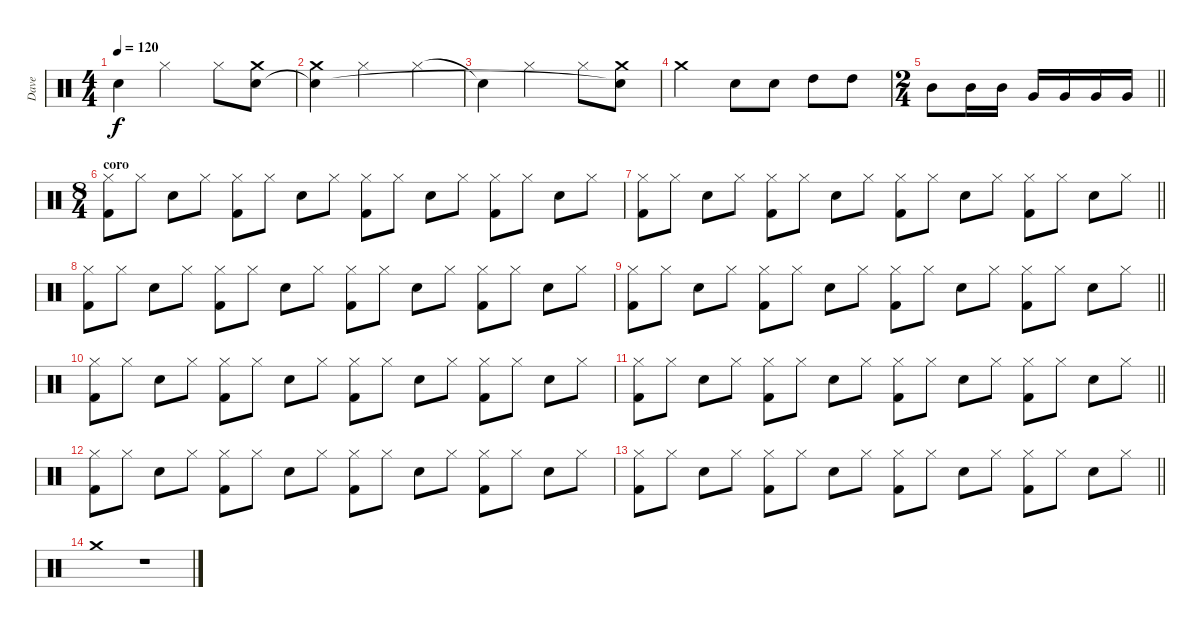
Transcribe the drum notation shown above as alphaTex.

\track ("Dave" "Dave") {instrument percussion}
\staff {score}
\articulation defaults
\ts (4 4)
\tempo 120
\clef neutral
\ks c "Snare (hit)"{t}.4{dy f} "Hi-Hat (closed)".2 "Hi-Hat (closed)".8
("Crash medium (hit)" "Snare (hit)"{t}).8 |
("Crash medium (hit)" "Snare (hit)"{t}).4 "Hi-Hat (closed)".2 "Hi-Hat (closed)".4 |
"Snare (hit)"{t}.4 "Hi-Hat (closed)".2 "Hi-Hat (closed)".8 ("Crash medium (hit)" "Snare (hit)"{t}).8 |
"Crash medium (hit)".2 "Snare (hit) 2".8 "Snare (hit) 2".8 "High Tom (hit)".8 "High Tom (hit)".8 |
\ts (2 4)
\barLineRight lightlight "Mid Tom (hit)".8 "Mid Tom (hit)".16 "Mid Tom (hit)".16 "Very Low Tom (hit)".16 "Very Low Tom (hit)".16 "Very Low Tom (hit)".16 "Very Low Tom (hit)".16
|
\ts (8 4)
\section ("" "coro")
("Hi-Hat (closed)" "Kick (hit) 2").8 "Hi-Hat (closed)".8 "Snare (hit) 2".8 "Hi-Hat (closed)".8 ("Hi-Hat (closed)" "Kick (hit) 2").8 "Hi-Hat (closed)".8 "Snare (hit) 2".8 "Hi-Hat (closed)".8 ("Hi-Hat (closed)" "Kick (hit) 2").8 "Hi-Hat (closed)".8 "Snare (hit) 2".8 "Hi-Hat (closed)".8 ("Hi-Hat (closed)" "Kick (hit) 2").8 "Hi-Hat (closed)".8 "Snare (hit) 2".8 "Hi-Hat (closed)".8 |
\barLineRight lightlight
("Hi-Hat (closed)" "Kick (hit) 2").8 "Hi-Hat (closed)".8 "Snare (hit) 2".8 "Hi-Hat (closed)".8 ("Hi-Hat (closed)" "Kick (hit) 2").8 "Hi-Hat (closed)".8 "Snare (hit) 2".8 "Hi-Hat (closed)".8 ("Hi-Hat (closed)" "Kick (hit) 2").8 "Hi-Hat (closed)".8 "Snare (hit) 2".8 "Hi-Hat (closed)".8 ("Hi-Hat (closed)" "Kick (hit) 2").8 "Hi-Hat (closed)".8 "Snare (hit) 2".8 "Hi-Hat (closed)".8 |
("Hi-Hat (closed)" "Kick (hit) 2").8 "Hi-Hat (closed)".8 "Snare (hit) 2".8 "Hi-Hat (closed)".8 ("Hi-Hat (closed)" "Kick (hit) 2").8 "Hi-Hat (closed)".8 "Snare (hit) 2".8 "Hi-Hat (closed)".8 ("Hi-Hat (closed)" "Kick (hit) 2").8 "Hi-Hat (closed)".8 "Snare (hit) 2".8 "Hi-Hat (closed)".8 ("Hi-Hat (closed)" "Kick (hit) 2").8 "Hi-Hat (closed)".8 "Snare (hit) 2".8 "Hi-Hat (closed)".8 |
\barLineRight lightlight
("Hi-Hat (closed)" "Kick (hit) 2").8 "Hi-Hat (closed)".8 "Snare (hit) 2".8 "Hi-Hat (closed)".8 ("Hi-Hat (closed)" "Kick (hit) 2").8 "Hi-Hat (closed)".8 "Snare (hit) 2".8 "Hi-Hat (closed)".8 ("Hi-Hat (closed)" "Kick (hit) 2").8 "Hi-Hat (closed)".8 "Snare (hit) 2".8 "Hi-Hat (closed)".8 ("Hi-Hat (closed)" "Kick (hit) 2").8 "Hi-Hat (closed)".8 "Snare (hit) 2".8 "Hi-Hat (closed)".8 |
("Hi-Hat (closed)" "Kick (hit) 2").8 "Hi-Hat (closed)".8 "Snare (hit) 2".8 "Hi-Hat (closed)".8 ("Hi-Hat (closed)" "Kick (hit) 2").8 "Hi-Hat (closed)".8 "Snare (hit) 2".8 "Hi-Hat (closed)".8 ("Hi-Hat (closed)" "Kick (hit) 2").8 "Hi-Hat (closed)".8 "Snare (hit) 2".8 "Hi-Hat (closed)".8 ("Hi-Hat (closed)" "Kick (hit) 2").8 "Hi-Hat (closed)".8 "Snare (hit) 2".8 "Hi-Hat (closed)".8 |
\barLineRight lightlight
("Hi-Hat (closed)" "Kick (hit) 2").8 "Hi-Hat (closed)".8 "Snare (hit) 2".8 "Hi-Hat (closed)".8 ("Hi-Hat (closed)" "Kick (hit) 2").8 "Hi-Hat (closed)".8 "Snare (hit) 2".8 "Hi-Hat (closed)".8 ("Hi-Hat (closed)" "Kick (hit) 2").8 "Hi-Hat (closed)".8 "Snare (hit) 2".8 "Hi-Hat (closed)".8 ("Hi-Hat (closed)" "Kick (hit) 2").8 "Hi-Hat (closed)".8 "Snare (hit) 2".8 "Hi-Hat (closed)".8 |
("Hi-Hat (closed)" "Kick (hit) 2").8 "Hi-Hat (closed)".8 "Snare (hit) 2".8 "Hi-Hat (closed)".8 ("Hi-Hat (closed)" "Kick (hit) 2").8 "Hi-Hat (closed)".8 "Snare (hit) 2".8 "Hi-Hat (closed)".8 ("Hi-Hat (closed)" "Kick (hit) 2").8 "Hi-Hat (closed)".8 "Snare (hit) 2".8 "Hi-Hat (closed)".8 ("Hi-Hat (closed)" "Kick (hit) 2").8 "Hi-Hat (closed)".8 "Snare (hit) 2".8 "Hi-Hat (closed)".8 |
\barLineRight lightlight
("Hi-Hat (closed)" "Kick (hit) 2").8 "Hi-Hat (closed)".8 "Snare (hit) 2".8 "Hi-Hat (closed)".8 ("Hi-Hat (closed)" "Kick (hit) 2").8 "Hi-Hat (closed)".8 "Snare (hit) 2".8 "Hi-Hat (closed)".8 ("Hi-Hat (closed)" "Kick (hit) 2").8 "Hi-Hat (closed)".8 "Snare (hit) 2".8 "Hi-Hat (closed)".8 ("Hi-Hat (closed)" "Kick (hit) 2").8 "Hi-Hat (closed)".8 "Snare (hit) 2".8 "Hi-Hat (closed)".8 |
"Crash medium (hit)".1 r.1
